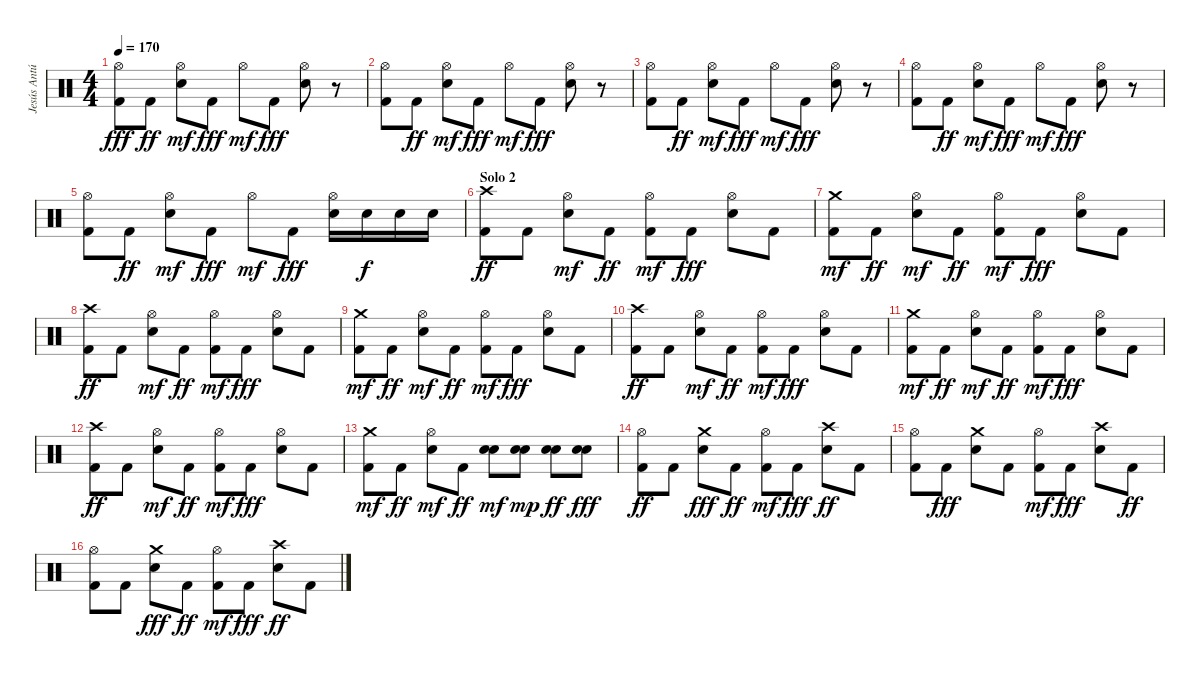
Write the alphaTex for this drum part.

\track ("Jesús Antúnez (Bateria)" "Jesús Antú") {instrument percussion}
\staff {score}
\articulation defaults
\ts (4 4)
\tempo 170
\clef neutral
\ks c
("Kick (hit) 2" "Hi-Hat (open)").8{dy fff} "Kick (hit) 2".8{dy ff} ("Electric Snare (hit)" "Hi-Hat (open)").8{dy mf} "Kick (hit) 2".8{dy fff} "Hi-Hat (open)".8{dy mf} "Kick (hit) 2".8{dy fff} ("Electric Snare (hit)" "Hi-Hat (open)").8 r.8 |
("Kick (hit) 2" "Hi-Hat (open)").8 "Kick (hit) 2".8{dy ff} ("Electric Snare (hit)" "Hi-Hat (open)").8{dy mf} "Kick (hit) 2".8{dy fff} "Hi-Hat (open)".8{dy mf} "Kick (hit) 2".8{dy fff} ("Electric Snare (hit)" "Hi-Hat (open)").8 r.8 |
("Kick (hit) 2" "Hi-Hat (open)").8 "Kick (hit) 2".8{dy ff} ("Electric Snare (hit)" "Hi-Hat (open)").8{dy mf} "Kick (hit) 2".8{dy fff} "Hi-Hat (open)".8{dy mf} "Kick (hit) 2".8{dy fff} ("Electric Snare (hit)" "Hi-Hat (open)").8 r.8 |
("Kick (hit) 2" "Hi-Hat (open)").8 "Kick (hit) 2".8{dy ff} ("Electric Snare (hit)" "Hi-Hat (open)").8{dy mf} "Kick (hit) 2".8{dy fff} "Hi-Hat (open)".8{dy mf} "Kick (hit) 2".8{dy fff} ("Electric Snare (hit)" "Hi-Hat (open)").8 r.8 |
("Kick (hit) 2" "Hi-Hat (open)").8 "Kick (hit) 2".8{dy ff} ("Electric Snare (hit)" "Hi-Hat (open)").8{dy mf} "Kick (hit) 2".8{dy fff} "Hi-Hat (open)".8{dy mf} "Kick (hit) 2".8{dy fff} ("Electric Snare (hit)" "Hi-Hat (open)").16 "Electric Snare (hit)".16{dy f} "Electric Snare (hit)".16 "Electric Snare (hit)".16 |
\section ("" "Solo 2")
("Crash high (hit)" "Kick (hit) 2").8{dy ff} "Kick (hit) 2".8 ("Electric Snare (hit)" "Hi-Hat (open)").8{dy mf} "Kick (hit) 2".8{dy ff} ("Kick (hit) 2" "Hi-Hat (open)").8{dy mf} "Kick (hit) 2".8{dy fff} ("Hi-Hat (open)" "Electric Snare (hit)").8 "Kick (hit) 2".8 |
("Kick (hit) 2" "Crash medium (hit)").8{dy mf} "Kick (hit) 2".8{dy ff} ("Electric Snare (hit)" "Hi-Hat (open)").8{dy mf} "Kick (hit) 2".8{dy ff} ("Kick (hit) 2" "Hi-Hat (open)").8{dy mf} "Kick (hit) 2".8{dy fff} ("Electric Snare (hit)" "Hi-Hat (open)").8 "Kick (hit) 2".8 |
("Crash high (hit)" "Kick (hit) 2").8{dy ff} "Kick (hit) 2".8 ("Electric Snare (hit)" "Hi-Hat (open)").8{dy mf} "Kick (hit) 2".8{dy ff} ("Kick (hit) 2" "Hi-Hat (open)").8{dy mf} "Kick (hit) 2".8{dy fff} ("Hi-Hat (open)" "Electric Snare (hit)").8 "Kick (hit) 2".8 |
("Kick (hit) 2" "Crash medium (hit)").8{dy mf} "Kick (hit) 2".8{dy ff} ("Electric Snare (hit)" "Hi-Hat (open)").8{dy mf} "Kick (hit) 2".8{dy ff} ("Kick (hit) 2" "Hi-Hat (open)").8{dy mf} "Kick (hit) 2".8{dy fff} ("Electric Snare (hit)" "Hi-Hat (open)").8 "Kick (hit) 2".8 |
("Crash high (hit)" "Kick (hit) 2").8{dy ff} "Kick (hit) 2".8 ("Electric Snare (hit)" "Hi-Hat (open)").8{dy mf} "Kick (hit) 2".8{dy ff} ("Kick (hit) 2" "Hi-Hat (open)").8{dy mf} "Kick (hit) 2".8{dy fff} ("Hi-Hat (open)" "Electric Snare (hit)").8 "Kick (hit) 2".8 |
("Kick (hit) 2" "Crash medium (hit)").8{dy mf} "Kick (hit) 2".8{dy ff} ("Electric Snare (hit)" "Hi-Hat (open)").8{dy mf} "Kick (hit) 2".8{dy ff} ("Kick (hit) 2" "Hi-Hat (open)").8{dy mf} "Kick (hit) 2".8{dy fff} ("Electric Snare (hit)" "Hi-Hat (open)").8 "Kick (hit) 2".8 |
("Crash high (hit)" "Kick (hit) 2").8{dy ff} "Kick (hit) 2".8 ("Electric Snare (hit)" "Hi-Hat (open)").8{dy mf} "Kick (hit) 2".8{dy ff} ("Kick (hit) 2" "Hi-Hat (open)").8{dy mf} "Kick (hit) 2".8{dy fff} ("Hi-Hat (open)" "Electric Snare (hit)").8 "Kick (hit) 2".8 |
("Kick (hit) 2" "Crash medium (hit)").8{dy mf} "Kick (hit) 2".8{dy ff} ("Electric Snare (hit)" "Hi-Hat (open)").8{dy mf} "Kick (hit) 2".8{dy ff} ("Electric Snare (hit)" "Electric Snare (hit)").8{dy mf} ("Electric Snare (hit)" "Electric Snare (hit)").8{dy mp} ("Electric Snare (hit)" "Electric Snare (hit)").8{dy ff} ("Electric Snare (hit)" "Electric Snare (hit)").8{dy fff} |
("Kick (hit) 2" "Hi-Hat (open)").8{dy ff} "Kick (hit) 2".8 ("Electric Snare (hit)" "Crash medium (hit)").8{dy fff} "Kick (hit) 2".8{dy ff} ("Kick (hit) 2" "Hi-Hat (open)").8{dy mf} "Kick (hit) 2".8{dy fff} ("Electric Snare (hit)" "Crash high (hit)").8{dy ff} "Kick (hit) 2".8 |
("Kick (hit) 2" "Hi-Hat (open)").8 "Kick (hit) 2".8{dy fff} ("Electric Snare (hit)" "Crash medium (hit)").8 "Kick (hit) 2".8 ("Kick (hit) 2" "Hi-Hat (open)").8{dy mf} "Kick (hit) 2".8{dy fff} ("Electric Snare (hit)" "Crash high (hit)").8 "Kick (hit) 2".8{dy ff} |
("Kick (hit) 2" "Hi-Hat (open)").8 "Kick (hit) 2".8 ("Electric Snare (hit)" "Crash medium (hit)").8{dy fff} "Kick (hit) 2".8{dy ff} ("Kick (hit) 2" "Hi-Hat (open)").8{dy mf} "Kick (hit) 2".8{dy fff} ("Electric Snare (hit)" "Crash high (hit)").8{dy ff} "Kick (hit) 2".8
